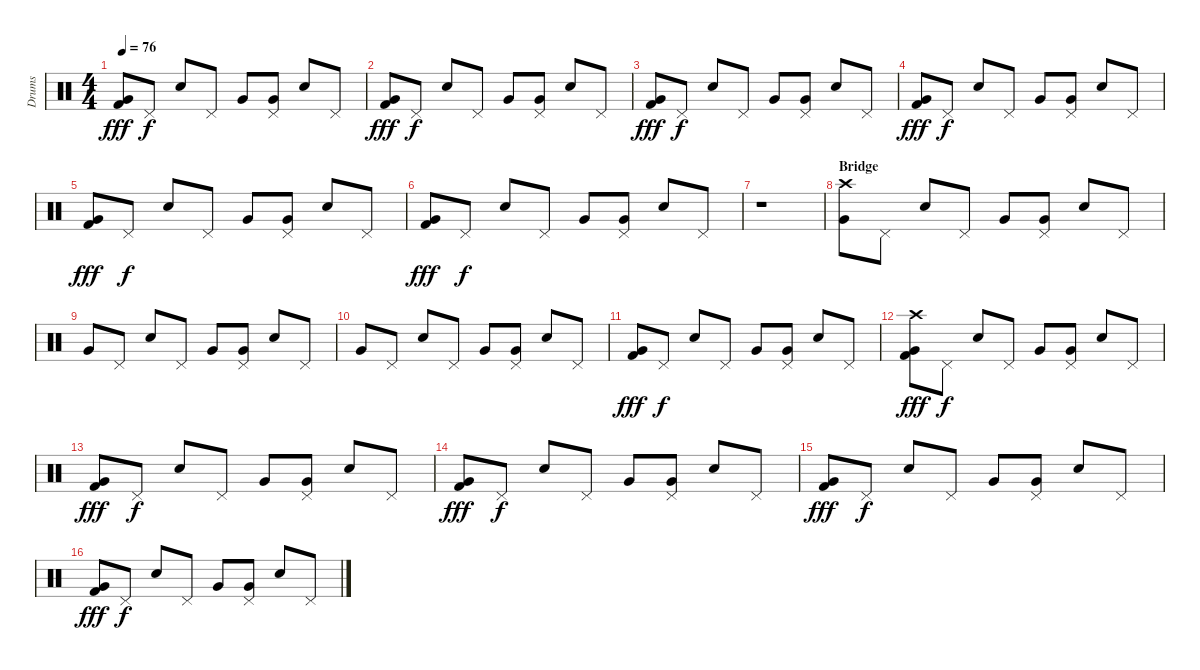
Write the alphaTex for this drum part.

\track ("Drums" "Drums") {instrument percussion}
\staff {score}
\articulation defaults
\ts (4 4)
\tempo 76
\clef neutral
\ks c
("Kick (hit) 2" "Very Low Tom (hit)").8{dy fff} "Pedal Hi-Hat (hit)".8{dy f} "Electric Snare (hit)".8 "Pedal Hi-Hat (hit)".8 "Very Low Tom (hit)".8 ("Very Low Tom (hit)" "Pedal Hi-Hat (hit)").8 "Electric Snare (hit)".8 "Pedal Hi-Hat (hit)".8 |
("Kick (hit) 2" "Very Low Tom (hit)").8{dy fff} "Pedal Hi-Hat (hit)".8{dy f} "Electric Snare (hit)".8 "Pedal Hi-Hat (hit)".8 "Very Low Tom (hit)".8 ("Very Low Tom (hit)" "Pedal Hi-Hat (hit)").8 "Electric Snare (hit)".8 "Pedal Hi-Hat (hit)".8 |
("Kick (hit) 2" "Very Low Tom (hit)").8{dy fff} "Pedal Hi-Hat (hit)".8{dy f} "Electric Snare (hit)".8 "Pedal Hi-Hat (hit)".8 "Very Low Tom (hit)".8 ("Very Low Tom (hit)" "Pedal Hi-Hat (hit)").8 "Electric Snare (hit)".8 "Pedal Hi-Hat (hit)".8 |
("Kick (hit) 2" "Very Low Tom (hit)").8{dy fff} "Pedal Hi-Hat (hit)".8{dy f} "Electric Snare (hit)".8 "Pedal Hi-Hat (hit)".8 "Very Low Tom (hit)".8 ("Very Low Tom (hit)" "Pedal Hi-Hat (hit)").8 "Electric Snare (hit)".8 "Pedal Hi-Hat (hit)".8 |
("Kick (hit) 2" "Very Low Tom (hit)").8{dy fff} "Pedal Hi-Hat (hit)".8{dy f} "Electric Snare (hit)".8 "Pedal Hi-Hat (hit)".8 "Very Low Tom (hit)".8 ("Very Low Tom (hit)" "Pedal Hi-Hat (hit)").8 "Electric Snare (hit)".8 "Pedal Hi-Hat (hit)".8 |
("Kick (hit) 2" "Very Low Tom (hit)").8{dy fff} "Pedal Hi-Hat (hit)".8{dy f} "Electric Snare (hit)".8 "Pedal Hi-Hat (hit)".8 "Very Low Tom (hit)".8 ("Very Low Tom (hit)" "Pedal Hi-Hat (hit)").8 "Electric Snare (hit)".8 "Pedal Hi-Hat (hit)".8 |
r.1 |
\section ("" "Bridge")
("Crash high (hit)" "Very Low Tom (hit)").8 "Pedal Hi-Hat (hit)".8 "Electric Snare (hit)".8 "Pedal Hi-Hat (hit)".8 "Very Low Tom (hit)".8 ("Very Low Tom (hit)" "Pedal Hi-Hat (hit)").8 "Electric Snare (hit)".8 "Pedal Hi-Hat (hit)".8 |
"Very Low Tom (hit)".8 "Pedal Hi-Hat (hit)".8 "Electric Snare (hit)".8 "Pedal Hi-Hat (hit)".8 "Very Low Tom (hit)".8 ("Very Low Tom (hit)" "Pedal Hi-Hat (hit)").8 "Electric Snare (hit)".8 "Pedal Hi-Hat (hit)".8 |
"Very Low Tom (hit)".8 "Pedal Hi-Hat (hit)".8 "Electric Snare (hit)".8 "Pedal Hi-Hat (hit)".8 "Very Low Tom (hit)".8 ("Very Low Tom (hit)" "Pedal Hi-Hat (hit)").8 "Electric Snare (hit)".8 "Pedal Hi-Hat (hit)".8 |
("Kick (hit) 2" "Very Low Tom (hit)").8{dy fff} "Pedal Hi-Hat (hit)".8{dy f} "Electric Snare (hit)".8 "Pedal Hi-Hat (hit)".8 "Very Low Tom (hit)".8 ("Very Low Tom (hit)" "Pedal Hi-Hat (hit)").8 "Electric Snare (hit)".8 "Pedal Hi-Hat (hit)".8 |
("Crash high (hit)" "Kick (hit) 2" "Very Low Tom (hit)").8{dy fff} "Pedal Hi-Hat (hit)".8{dy f} "Electric Snare (hit)".8 "Pedal Hi-Hat (hit)".8 "Very Low Tom (hit)".8 ("Very Low Tom (hit)" "Pedal Hi-Hat (hit)").8 "Electric Snare (hit)".8 "Pedal Hi-Hat (hit)".8 |
("Kick (hit) 2" "Very Low Tom (hit)").8{dy fff} "Pedal Hi-Hat (hit)".8{dy f} "Electric Snare (hit)".8 "Pedal Hi-Hat (hit)".8 "Very Low Tom (hit)".8 ("Very Low Tom (hit)" "Pedal Hi-Hat (hit)").8 "Electric Snare (hit)".8 "Pedal Hi-Hat (hit)".8 |
("Kick (hit) 2" "Very Low Tom (hit)").8{dy fff} "Pedal Hi-Hat (hit)".8{dy f} "Electric Snare (hit)".8 "Pedal Hi-Hat (hit)".8 "Very Low Tom (hit)".8 ("Very Low Tom (hit)" "Pedal Hi-Hat (hit)").8 "Electric Snare (hit)".8 "Pedal Hi-Hat (hit)".8 |
("Kick (hit) 2" "Very Low Tom (hit)").8{dy fff} "Pedal Hi-Hat (hit)".8{dy f} "Electric Snare (hit)".8 "Pedal Hi-Hat (hit)".8 "Very Low Tom (hit)".8 ("Very Low Tom (hit)" "Pedal Hi-Hat (hit)").8 "Electric Snare (hit)".8 "Pedal Hi-Hat (hit)".8 |
("Kick (hit) 2" "Very Low Tom (hit)").8{dy fff} "Pedal Hi-Hat (hit)".8{dy f} "Electric Snare (hit)".8 "Pedal Hi-Hat (hit)".8 "Very Low Tom (hit)".8 ("Very Low Tom (hit)" "Pedal Hi-Hat (hit)").8 "Electric Snare (hit)".8 "Pedal Hi-Hat (hit)".8
